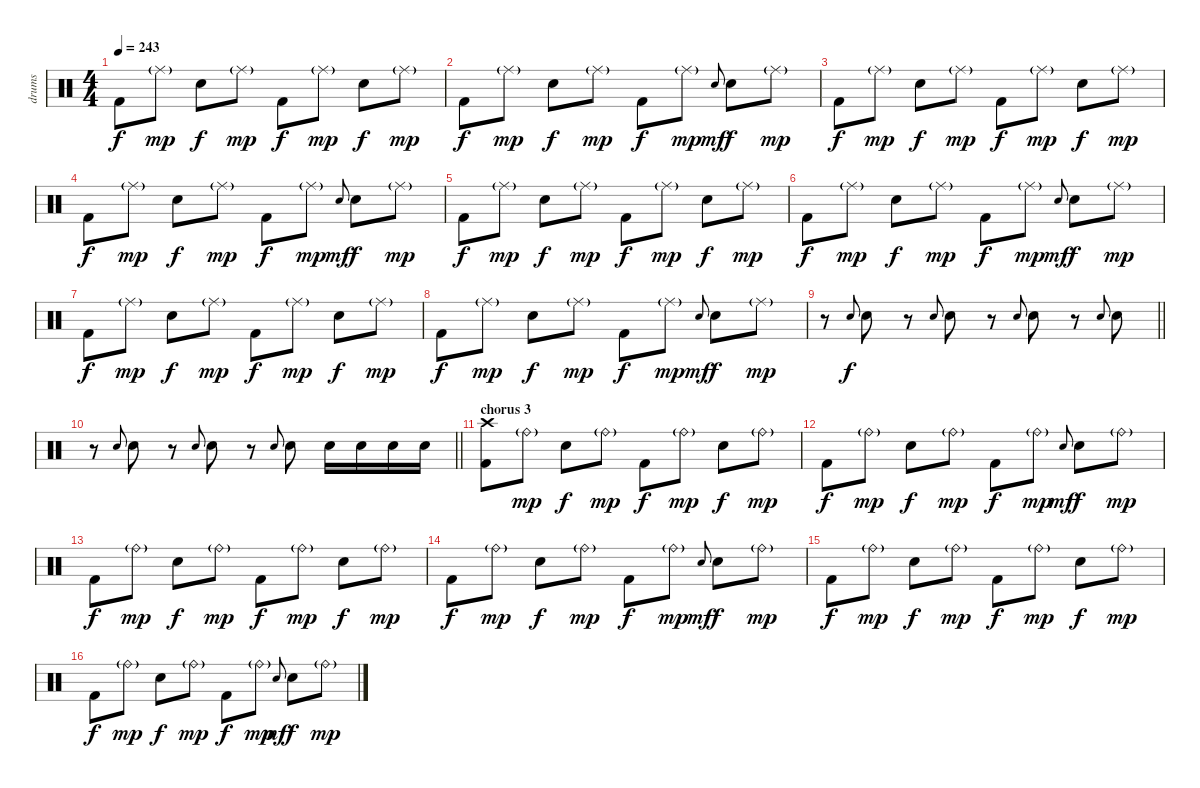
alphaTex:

\track ("drums" "drums") {instrument percussion}
\staff {score}
\articulation defaults
\ts (4 4)
\tempo 243
\clef neutral
\ks c "Kick (hit) 2".8{dy f} "Ride (middle)"{g}.8{dy mp} "Electric Snare (hit)".8{dy f} "Ride (middle)"{g}.8{dy mp} "Kick (hit) 2".8{dy f} "Ride (middle)"{g}.8{dy mp} "Electric Snare (hit)".8{dy f} "Ride (middle)"{g}.8{dy mp}
|
"Kick (hit) 2".8{dy f} "Ride (middle)"{g}.8{dy mp} "Electric Snare (hit)".8{dy f} "Ride (middle)"{g}.8{dy mp} "Kick (hit) 2".8{dy f} "Ride (middle)"{g}.8{dy mp} "Electric Snare (hit)"{x}.8{gr onbeat dy mf} "Electric Snare (hit)".8{dy f} "Ride (middle)"{g}.8{dy mp} |
"Kick (hit) 2".8{dy f} "Ride (middle)"{g}.8{dy mp} "Electric Snare (hit)".8{dy f} "Ride (middle)"{g}.8{dy mp} "Kick (hit) 2".8{dy f} "Ride (middle)"{g}.8{dy mp} "Electric Snare (hit)".8{dy f} "Ride (middle)"{g}.8{dy mp} |
"Kick (hit) 2".8{dy f} "Ride (middle)"{g}.8{dy mp} "Electric Snare (hit)".8{dy f} "Ride (middle)"{g}.8{dy mp} "Kick (hit) 2".8{dy f} "Ride (middle)"{g}.8{dy mp} "Electric Snare (hit)"{x}.8{gr onbeat dy mf} "Electric Snare (hit)".8{dy f} "Ride (middle)"{g}.8{dy mp} |
"Kick (hit) 2".8{dy f} "Ride (middle)"{g}.8{dy mp} "Electric Snare (hit)".8{dy f} "Ride (middle)"{g}.8{dy mp} "Kick (hit) 2".8{dy f} "Ride (middle)"{g}.8{dy mp} "Electric Snare (hit)".8{dy f} "Ride (middle)"{g}.8{dy mp} |
"Kick (hit) 2".8{dy f} "Ride (middle)"{g}.8{dy mp} "Electric Snare (hit)".8{dy f} "Ride (middle)"{g}.8{dy mp} "Kick (hit) 2".8{dy f} "Ride (middle)"{g}.8{dy mp} "Electric Snare (hit)"{x}.8{gr onbeat dy mf} "Electric Snare (hit)".8{dy f} "Ride (middle)"{g}.8{dy mp} |
"Kick (hit) 2".8{dy f volume 16} "Ride (middle)"{g}.8{dy mp} "Electric Snare (hit)".8{dy f} "Ride (middle)"{g}.8{dy mp} "Kick (hit) 2".8{dy f} "Ride (middle)"{g}.8{dy mp} "Electric Snare (hit)".8{dy f} "Ride (middle)"{g}.8{dy mp} |
"Kick (hit) 2".8{dy f} "Ride (middle)"{g}.8{dy mp} "Electric Snare (hit)".8{dy f} "Ride (middle)"{g}.8{dy mp} "Kick (hit) 2".8{dy f} "Ride (middle)"{g}.8{dy mp} "Electric Snare (hit)"{x}.8{gr onbeat dy mf} "Electric Snare (hit)".8{dy f} "Ride (middle)"{g}.8{dy mp} |
\barLineRight lightlight
r.8 "Electric Snare (hit)"{x}.8{gr onbeat dy f} "Electric Snare (hit)".8 r.8 "Electric Snare (hit)"{x}.8{gr onbeat} "Electric Snare (hit)".8 r.8 "Electric Snare (hit)"{x}.8{gr onbeat} "Electric Snare (hit)".8 r.8 "Electric Snare (hit)"{x}.8{gr onbeat} "Electric Snare (hit)".8 |
\barLineRight lightlight
r.8 "Electric Snare (hit)"{x}.8{gr onbeat} "Electric Snare (hit)".8 r.8 "Electric Snare (hit)"{x}.8{gr onbeat} "Electric Snare (hit)".8 r.8 "Electric Snare (hit)"{x}.8{gr onbeat} "Electric Snare (hit)".8 "Electric Snare (hit)".16 "Electric Snare (hit)".16 "Electric Snare (hit)".16 "Electric Snare (hit)".16 |
\section ("" "chorus 3")
("Kick (hit) 2" "Crash high (hit)").8 "Ride (bell)"{g}.8{dy mp} "Electric Snare (hit)".8{dy f} "Ride (bell)"{g}.8{dy mp} "Kick (hit) 2".8{dy f} "Ride (bell)"{g}.8{dy mp} "Electric Snare (hit)".8{dy f} "Ride (bell)"{g}.8{dy mp} |
"Kick (hit) 2".8{dy f} "Ride (bell)"{g}.8{dy mp} "Electric Snare (hit)".8{dy f} "Ride (bell)"{g}.8{dy mp} "Kick (hit) 2".8{dy f} "Ride (bell)"{g}.8{dy mp} "Electric Snare (hit)"{x}.8{gr onbeat dy mf} "Electric Snare (hit)".8{dy f} "Ride (bell)"{g}.8{dy mp} |
"Kick (hit) 2".8{dy f} "Ride (bell)"{g}.8{dy mp} "Electric Snare (hit)".8{dy f} "Ride (bell)"{g}.8{dy mp} "Kick (hit) 2".8{dy f} "Ride (bell)"{g}.8{dy mp} "Electric Snare (hit)".8{dy f} "Ride (bell)"{g}.8{dy mp} |
"Kick (hit) 2".8{dy f} "Ride (bell)"{g}.8{dy mp} "Electric Snare (hit)".8{dy f} "Ride (bell)"{g}.8{dy mp} "Kick (hit) 2".8{dy f} "Ride (bell)"{g}.8{dy mp} "Electric Snare (hit)"{x}.8{gr onbeat dy mf} "Electric Snare (hit)".8{dy f} "Ride (bell)"{g}.8{dy mp} |
"Kick (hit) 2".8{dy f} "Ride (bell)"{g}.8{dy mp} "Electric Snare (hit)".8{dy f} "Ride (bell)"{g}.8{dy mp} "Kick (hit) 2".8{dy f} "Ride (bell)"{g}.8{dy mp} "Electric Snare (hit)".8{dy f} "Ride (bell)"{g}.8{dy mp} |
"Kick (hit) 2".8{dy f} "Ride (bell)"{g}.8{dy mp} "Electric Snare (hit)".8{dy f} "Ride (bell)"{g}.8{dy mp} "Kick (hit) 2".8{dy f} "Ride (bell)"{g}.8{dy mp} "Electric Snare (hit)"{x}.8{gr onbeat dy mf} "Electric Snare (hit)".8{dy f} "Ride (bell)"{g}.8{dy mp}
